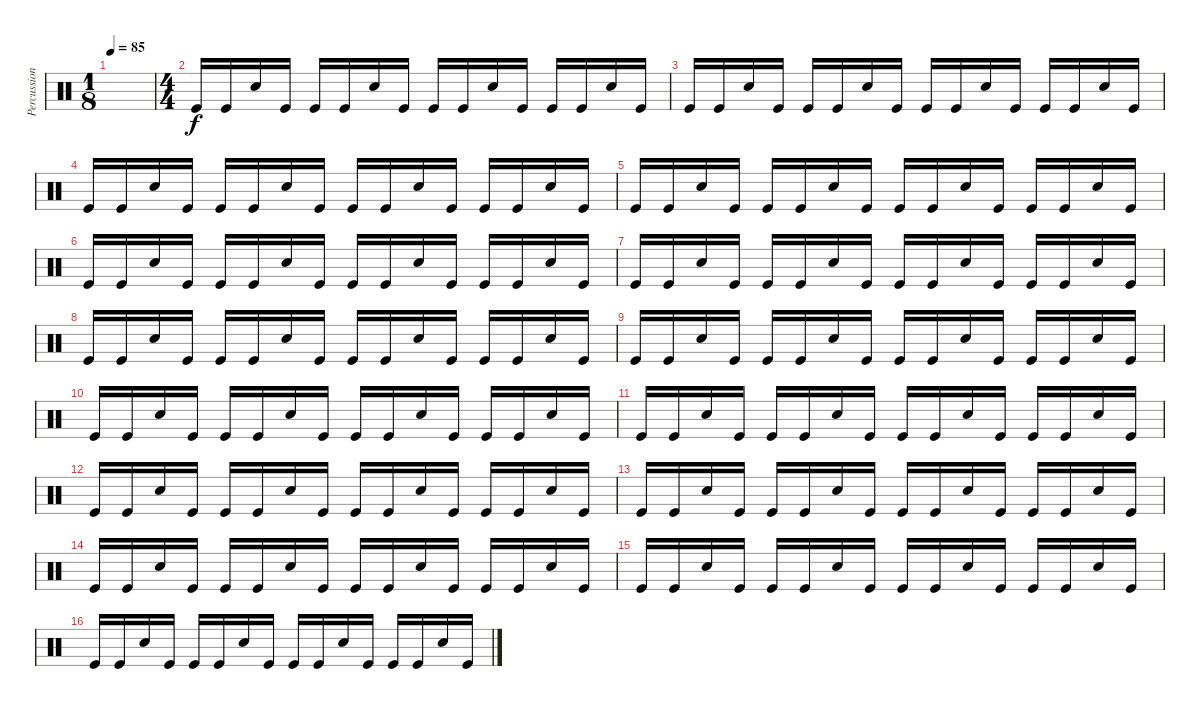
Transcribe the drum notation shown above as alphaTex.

\track ("Percussion" "Percussion") {instrument percussion}
\staff {score}
\articulation defaults
\ts (1 8)
\tempo 85
\clef neutral
\ks c
|
\ts (4 4)
"Kick (hit)".16 "Kick (hit)".16 "Snare (hit) 2".16 "Kick (hit)".16 "Kick (hit)".16 "Kick (hit)".16 "Snare (hit) 2".16 "Kick (hit)".16 "Kick (hit)".16 "Kick (hit)".16 "Snare (hit) 2".16 "Kick (hit)".16 "Kick (hit)".16 "Kick (hit)".16 "Snare (hit) 2".16 "Kick (hit)".16 |
"Kick (hit)".16 "Kick (hit)".16 "Snare (hit) 2".16 "Kick (hit)".16 "Kick (hit)".16 "Kick (hit)".16 "Snare (hit) 2".16 "Kick (hit)".16 "Kick (hit)".16 "Kick (hit)".16 "Snare (hit) 2".16 "Kick (hit)".16 "Kick (hit)".16 "Kick (hit)".16 "Snare (hit) 2".16 "Kick (hit)".16 |
"Kick (hit)".16 "Kick (hit)".16 "Snare (hit) 2".16 "Kick (hit)".16 "Kick (hit)".16 "Kick (hit)".16 "Snare (hit) 2".16 "Kick (hit)".16 "Kick (hit)".16 "Kick (hit)".16 "Snare (hit) 2".16 "Kick (hit)".16 "Kick (hit)".16 "Kick (hit)".16 "Snare (hit) 2".16 "Kick (hit)".16 |
"Kick (hit)".16 "Kick (hit)".16 "Snare (hit) 2".16 "Kick (hit)".16 "Kick (hit)".16 "Kick (hit)".16 "Snare (hit) 2".16 "Kick (hit)".16 "Kick (hit)".16 "Kick (hit)".16 "Snare (hit) 2".16 "Kick (hit)".16 "Kick (hit)".16 "Kick (hit)".16 "Snare (hit) 2".16 "Kick (hit)".16 |
"Kick (hit)".16 "Kick (hit)".16 "Snare (hit) 2".16 "Kick (hit)".16 "Kick (hit)".16 "Kick (hit)".16 "Snare (hit) 2".16 "Kick (hit)".16 "Kick (hit)".16 "Kick (hit)".16 "Snare (hit) 2".16 "Kick (hit)".16 "Kick (hit)".16 "Kick (hit)".16 "Snare (hit) 2".16 "Kick (hit)".16 |
"Kick (hit)".16 "Kick (hit)".16 "Snare (hit) 2".16 "Kick (hit)".16 "Kick (hit)".16 "Kick (hit)".16 "Snare (hit) 2".16 "Kick (hit)".16 "Kick (hit)".16 "Kick (hit)".16 "Snare (hit) 2".16 "Kick (hit)".16 "Kick (hit)".16 "Kick (hit)".16 "Snare (hit) 2".16 "Kick (hit)".16 |
"Kick (hit)".16 "Kick (hit)".16 "Snare (hit) 2".16 "Kick (hit)".16 "Kick (hit)".16 "Kick (hit)".16 "Snare (hit) 2".16 "Kick (hit)".16 "Kick (hit)".16 "Kick (hit)".16 "Snare (hit) 2".16 "Kick (hit)".16 "Kick (hit)".16 "Kick (hit)".16 "Snare (hit) 2".16 "Kick (hit)".16 |
"Kick (hit)".16 "Kick (hit)".16 "Snare (hit) 2".16 "Kick (hit)".16 "Kick (hit)".16 "Kick (hit)".16 "Snare (hit) 2".16 "Kick (hit)".16 "Kick (hit)".16 "Kick (hit)".16 "Snare (hit) 2".16 "Kick (hit)".16 "Kick (hit)".16 "Kick (hit)".16 "Snare (hit) 2".16 "Kick (hit)".16 |
"Kick (hit)".16 "Kick (hit)".16 "Snare (hit) 2".16 "Kick (hit)".16 "Kick (hit)".16 "Kick (hit)".16 "Snare (hit) 2".16 "Kick (hit)".16 "Kick (hit)".16 "Kick (hit)".16 "Snare (hit) 2".16 "Kick (hit)".16 "Kick (hit)".16 "Kick (hit)".16 "Snare (hit) 2".16 "Kick (hit)".16 |
"Kick (hit)".16 "Kick (hit)".16 "Snare (hit) 2".16 "Kick (hit)".16 "Kick (hit)".16 "Kick (hit)".16 "Snare (hit) 2".16 "Kick (hit)".16 "Kick (hit)".16 "Kick (hit)".16 "Snare (hit) 2".16 "Kick (hit)".16 "Kick (hit)".16 "Kick (hit)".16 "Snare (hit) 2".16 "Kick (hit)".16 |
"Kick (hit)".16 "Kick (hit)".16 "Snare (hit) 2".16 "Kick (hit)".16 "Kick (hit)".16 "Kick (hit)".16 "Snare (hit) 2".16 "Kick (hit)".16 "Kick (hit)".16 "Kick (hit)".16 "Snare (hit) 2".16 "Kick (hit)".16 "Kick (hit)".16 "Kick (hit)".16 "Snare (hit) 2".16 "Kick (hit)".16 |
"Kick (hit)".16 "Kick (hit)".16 "Snare (hit) 2".16 "Kick (hit)".16 "Kick (hit)".16 "Kick (hit)".16 "Snare (hit) 2".16 "Kick (hit)".16 "Kick (hit)".16 "Kick (hit)".16 "Snare (hit) 2".16 "Kick (hit)".16 "Kick (hit)".16 "Kick (hit)".16 "Snare (hit) 2".16 "Kick (hit)".16 |
"Kick (hit)".16 "Kick (hit)".16 "Snare (hit) 2".16 "Kick (hit)".16 "Kick (hit)".16 "Kick (hit)".16 "Snare (hit) 2".16 "Kick (hit)".16 "Kick (hit)".16 "Kick (hit)".16 "Snare (hit) 2".16 "Kick (hit)".16 "Kick (hit)".16 "Kick (hit)".16 "Snare (hit) 2".16 "Kick (hit)".16 |
"Kick (hit)".16 "Kick (hit)".16 "Snare (hit) 2".16 "Kick (hit)".16 "Kick (hit)".16 "Kick (hit)".16 "Snare (hit) 2".16 "Kick (hit)".16 "Kick (hit)".16 "Kick (hit)".16 "Snare (hit) 2".16 "Kick (hit)".16 "Kick (hit)".16 "Kick (hit)".16 "Snare (hit) 2".16 "Kick (hit)".16 |
"Kick (hit)".16 "Kick (hit)".16 "Snare (hit) 2".16 "Kick (hit)".16 "Kick (hit)".16 "Kick (hit)".16 "Snare (hit) 2".16 "Kick (hit)".16 "Kick (hit)".16 "Kick (hit)".16 "Snare (hit) 2".16 "Kick (hit)".16 "Kick (hit)".16 "Kick (hit)".16 "Snare (hit) 2".16 "Kick (hit)".16
